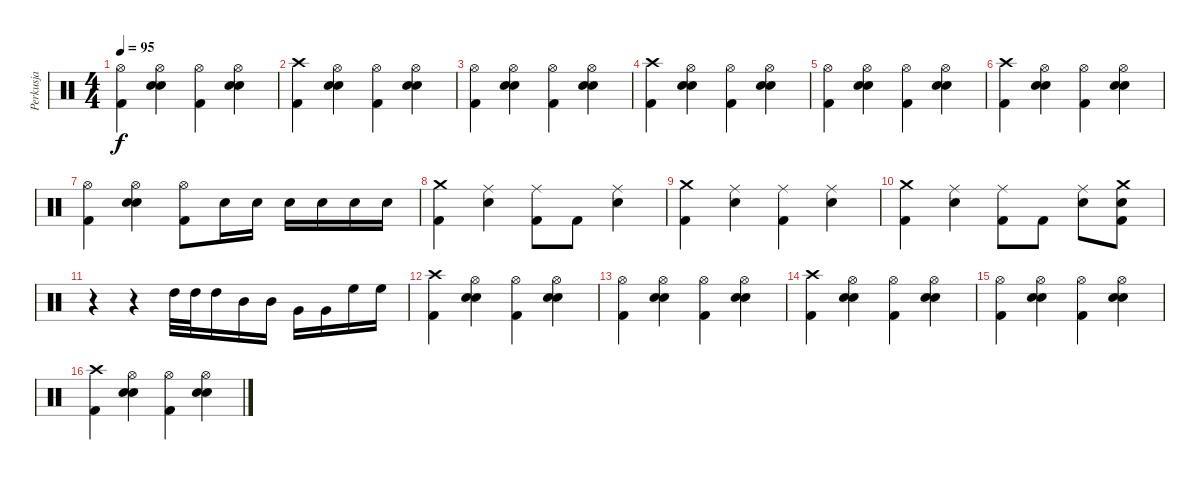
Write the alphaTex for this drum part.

\track ("Perkusja" "Perkusja") {instrument percussion}
\staff {score}
\articulation defaults
\ts (4 4)
\tempo 95
\clef neutral
\ks c
("Hi-Hat (open)" "Kick (hit) 2").4{dy f} ("Hi-Hat (open)" "Electric Snare (hit)" "Snare (hit) 2").4 ("Hi-Hat (open)" "Kick (hit) 2").4 ("Hi-Hat (open)" "Electric Snare (hit)" "Snare (hit) 2").4 |
("Crash high (hit)" "Kick (hit) 2").4 ("Hi-Hat (open)" "Electric Snare (hit)" "Snare (hit) 2").4 ("Hi-Hat (open)" "Kick (hit) 2").4 ("Hi-Hat (open)" "Electric Snare (hit)" "Snare (hit) 2").4 |
("Hi-Hat (open)" "Kick (hit) 2").4 ("Hi-Hat (open)" "Electric Snare (hit)" "Snare (hit) 2").4 ("Hi-Hat (open)" "Kick (hit) 2").4 ("Hi-Hat (open)" "Electric Snare (hit)" "Snare (hit) 2").4 |
("Crash high (hit)" "Kick (hit) 2").4 ("Hi-Hat (open)" "Electric Snare (hit)" "Snare (hit) 2").4 ("Hi-Hat (open)" "Kick (hit) 2").4 ("Hi-Hat (open)" "Electric Snare (hit)" "Snare (hit) 2").4 |
("Hi-Hat (open)" "Kick (hit) 2").4 ("Hi-Hat (open)" "Electric Snare (hit)" "Snare (hit) 2").4 ("Hi-Hat (open)" "Kick (hit) 2").4 ("Hi-Hat (open)" "Electric Snare (hit)" "Snare (hit) 2").4 |
("Crash high (hit)" "Kick (hit) 2").4 ("Hi-Hat (open)" "Electric Snare (hit)" "Snare (hit) 2").4 ("Hi-Hat (open)" "Kick (hit) 2").4 ("Hi-Hat (open)" "Electric Snare (hit)" "Snare (hit) 2").4 |
("Hi-Hat (open)" "Kick (hit) 2").4 ("Hi-Hat (open)" "Electric Snare (hit)" "Snare (hit) 2").4 ("Hi-Hat (open)" "Kick (hit) 2").8 "Snare (hit) 2".16 "Snare (hit) 2".16 "Snare (hit) 2".16 "Snare (hit) 2".16 "Snare (hit) 2".16 "Snare (hit) 2".16 |
("Crash medium (hit)" "Kick (hit) 2").4 ("Ride (middle)" "Snare (hit) 2").4 ("Ride (middle)" "Kick (hit) 2").8 "Kick (hit) 2".8 ("Ride (middle)" "Snare (hit) 2").4 |
("Crash medium (hit)" "Kick (hit) 2").4 ("Ride (middle)" "Snare (hit) 2").4 ("Ride (middle)" "Kick (hit) 2").4 ("Ride (middle)" "Snare (hit) 2").4 |
("Crash medium (hit)" "Kick (hit) 2").4 ("Ride (middle)" "Snare (hit) 2").4 ("Ride (middle)" "Kick (hit) 2").8 "Kick (hit) 2".8 ("Ride (middle)" "Snare (hit) 2").8 ("Crash medium (hit)" "Snare (hit) 2" "Kick (hit) 2").8 |
r.4 r.4 "High Tom (hit)".32 "High Tom (hit)".32 "High Tom (hit)".16 "Mid Tom (hit)".16 "Mid Tom (hit)".16 "Very Low Tom (hit)".16 "Very Low Tom (hit)".16 "High Floor Tom (hit)".16 "High Floor Tom (hit)".16 |
("Crash high (hit)" "Kick (hit) 2").4 ("Hi-Hat (open)" "Electric Snare (hit)" "Snare (hit) 2").4 ("Hi-Hat (open)" "Kick (hit) 2").4 ("Hi-Hat (open)" "Electric Snare (hit)" "Snare (hit) 2").4 |
("Hi-Hat (open)" "Kick (hit) 2").4 ("Hi-Hat (open)" "Electric Snare (hit)" "Snare (hit) 2").4 ("Hi-Hat (open)" "Kick (hit) 2").4 ("Hi-Hat (open)" "Electric Snare (hit)" "Snare (hit) 2").4 |
("Crash high (hit)" "Kick (hit) 2").4 ("Hi-Hat (open)" "Electric Snare (hit)" "Snare (hit) 2").4 ("Hi-Hat (open)" "Kick (hit) 2").4 ("Hi-Hat (open)" "Electric Snare (hit)" "Snare (hit) 2").4 |
("Hi-Hat (open)" "Kick (hit) 2").4 ("Hi-Hat (open)" "Electric Snare (hit)" "Snare (hit) 2").4 ("Hi-Hat (open)" "Kick (hit) 2").4 ("Hi-Hat (open)" "Electric Snare (hit)" "Snare (hit) 2").4 |
("Crash high (hit)" "Kick (hit) 2").4 ("Hi-Hat (open)" "Electric Snare (hit)" "Snare (hit) 2").4 ("Hi-Hat (open)" "Kick (hit) 2").4 ("Hi-Hat (open)" "Electric Snare (hit)" "Snare (hit) 2").4
